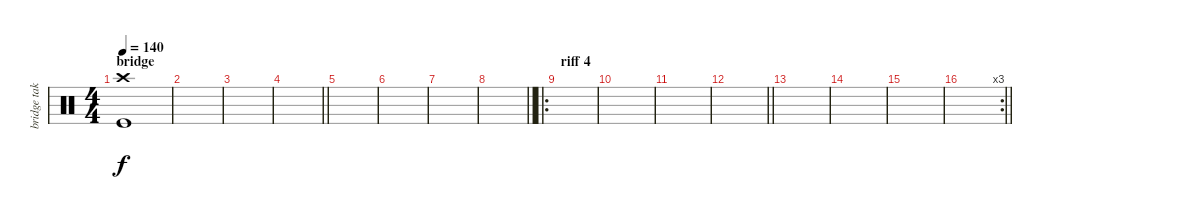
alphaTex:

\track ("bridge takt" "bridge tak") {instrument percussion}
\staff {score}
\articulation defaults
\ts (4 4)
\section ("" "bridge")
\tempo 140
\clef neutral
\ks c
("Crash high (hit)" "Kick (hit)").1{dy f} |
|
|
\barLineRight lightlight
|
|
|
|
\barLineRight lightlight
|
\ro
\section ("" "riff 4")
|
|
|
\barLineRight lightlight
|
|
|
|
\rc 3
\barLineRight lightlight
